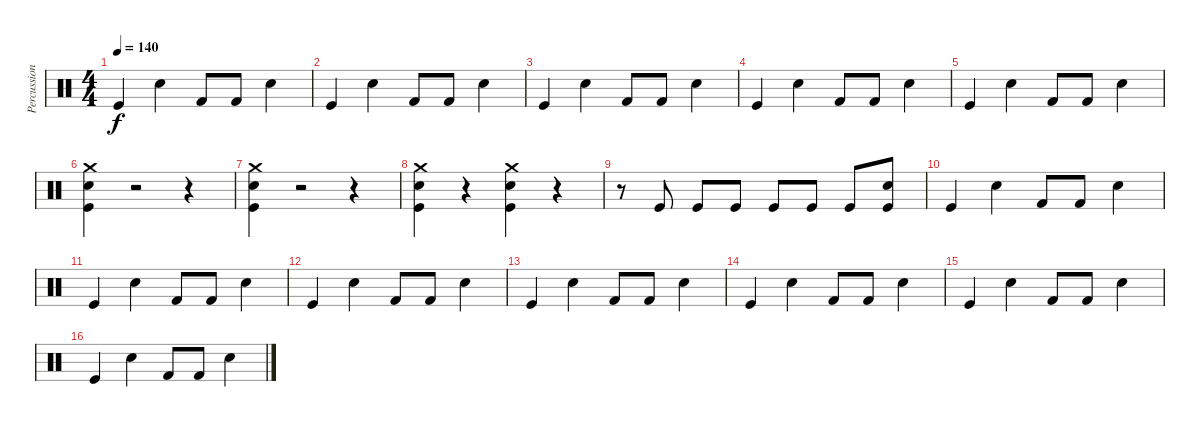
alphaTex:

\track ("Percussions" "Percussion") {instrument percussion}
\staff {score}
\articulation defaults
\ts (4 4)
\tempo 140
\clef neutral
\ks c "Kick (hit)".4{dy f} "Snare (hit) 2".4 "Kick (hit) 2".8 "Kick (hit) 2".8 "Snare (hit) 2".4
|
"Kick (hit)".4 "Snare (hit) 2".4 "Kick (hit) 2".8 "Kick (hit) 2".8 "Snare (hit) 2".4 |
"Kick (hit)".4 "Snare (hit) 2".4 "Kick (hit) 2".8 "Kick (hit) 2".8 "Snare (hit) 2".4 |
"Kick (hit)".4 "Snare (hit) 2".4 "Kick (hit) 2".8 "Kick (hit) 2".8 "Snare (hit) 2".4 |
"Kick (hit)".4 "Snare (hit) 2".4 "Kick (hit) 2".8 "Kick (hit) 2".8 "Snare (hit) 2".4 |
("Crash medium (hit)" "Snare (hit) 2" "Kick (hit)").4 r.2 r.4 |
("Crash medium (hit)" "Snare (hit) 2" "Kick (hit)").4 r.2 r.4 |
("Crash medium (hit)" "Snare (hit) 2" "Kick (hit)").4 r.4 ("Crash medium (hit)" "Snare (hit) 2" "Kick (hit)").4 r.4 |
r.8 "Kick (hit)".8 "Kick (hit)".8 "Kick (hit)".8 "Kick (hit)".8 "Kick (hit)".8 "Kick (hit)".8 ("Snare (hit) 2" "Kick (hit)").8 |
"Kick (hit)".4 "Snare (hit) 2".4 "Kick (hit) 2".8 "Kick (hit) 2".8 "Snare (hit) 2".4 |
"Kick (hit)".4 "Snare (hit) 2".4 "Kick (hit) 2".8 "Kick (hit) 2".8 "Snare (hit) 2".4 |
"Kick (hit)".4 "Snare (hit) 2".4 "Kick (hit) 2".8 "Kick (hit) 2".8 "Snare (hit) 2".4 |
"Kick (hit)".4 "Snare (hit) 2".4 "Kick (hit) 2".8 "Kick (hit) 2".8 "Snare (hit) 2".4 |
"Kick (hit)".4 "Snare (hit) 2".4 "Kick (hit) 2".8 "Kick (hit) 2".8 "Snare (hit) 2".4 |
"Kick (hit)".4 "Snare (hit) 2".4 "Kick (hit) 2".8 "Kick (hit) 2".8 "Snare (hit) 2".4 |
"Kick (hit)".4 "Snare (hit) 2".4 "Kick (hit) 2".8 "Kick (hit) 2".8 "Snare (hit) 2".4
